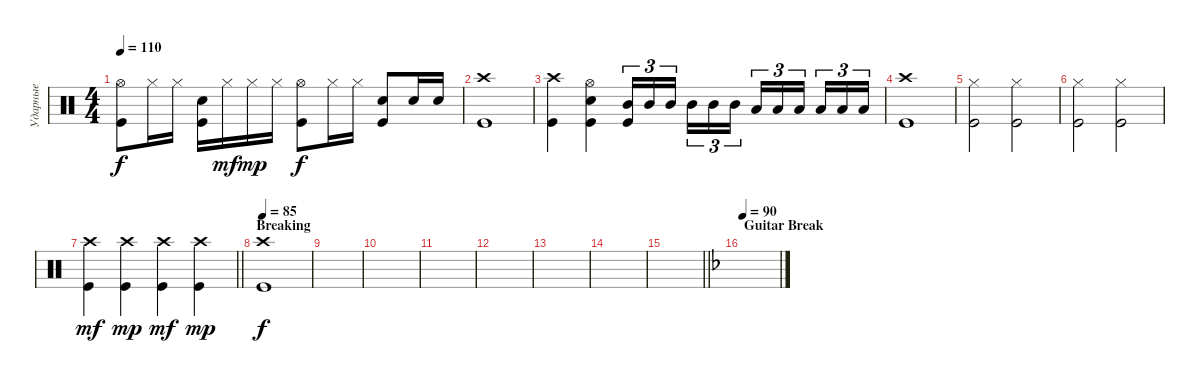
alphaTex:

\track ("Ударные" "Ударные") {instrument percussion}
\staff {score}
\articulation defaults
\ts (4 4)
\tempo 110
\clef neutral
\ks c
("Hi-Hat (open)" "Kick (hit)").8{dy f} "Hi-Hat (closed)".16 "Hi-Hat (closed)".16 ("Kick (hit)" "Snare (hit) 2").16 "Hi-Hat (closed)".16{dy mf} "Hi-Hat (closed)".16{dy mp} "Hi-Hat (closed)".16 ("Hi-Hat (open)" "Kick (hit)").8{dy f} "Hi-Hat (closed)".16 "Hi-Hat (closed)".16 ("Kick (hit)" "Snare (hit) 2").8 "Snare (hit) 2".16 "Snare (hit) 2".16 |
("Kick (hit)" "Crash high (hit)").1 |
("Kick (hit)" "Crash high (hit)").4 ("Kick (hit)" "Snare (hit) 2" "Hi-Hat (open)").4 ("Mid Tom (hit)" "Kick (hit)").16{tu (3 2)} "Mid Tom (hit)".16{tu (3 2)} "Mid Tom (hit)".16{tu (3 2) beam splitsecondary} "Mid Tom (hit)".16{tu (3 2)} "Mid Tom (hit)".16{tu (3 2)} "Mid Tom (hit)".16{tu (3 2)} "Low Tom (hit)".16{tu (3 2)} "Low Tom (hit)".16{tu (3 2)} "Low Tom (hit)".16{tu (3 2) beam splitsecondary} "Low Tom (hit)".16{tu (3 2)} "Low Tom (hit)".16{tu (3 2)} "Low Tom (hit)".16{tu (3 2)} |
("Kick (hit)" "Crash high (hit)").1 |
("Kick (hit)" "Hi-Hat (closed)").2 ("Kick (hit)" "Hi-Hat (closed)").2 |
("Kick (hit)" "Hi-Hat (closed)").2 ("Kick (hit)" "Hi-Hat (closed)").2 |
\barLineRight lightlight
("Kick (hit)" "Crash high (hit)").4{dy mf} ("Kick (hit)" "Crash high (hit)").4{dy mp} ("Kick (hit)" "Crash high (hit)").4{dy mf} ("Kick (hit)" "Crash high (hit)").4{dy mp} |
\section ("" "Breaking")
\tempo 85
("Kick (hit)" "Crash high (hit)").1{dy f} |
|
|
|
|
|
|
\barLineRight lightlight
|
\section ("" "Guitar Break")
\tempo 90
\ks dminor
